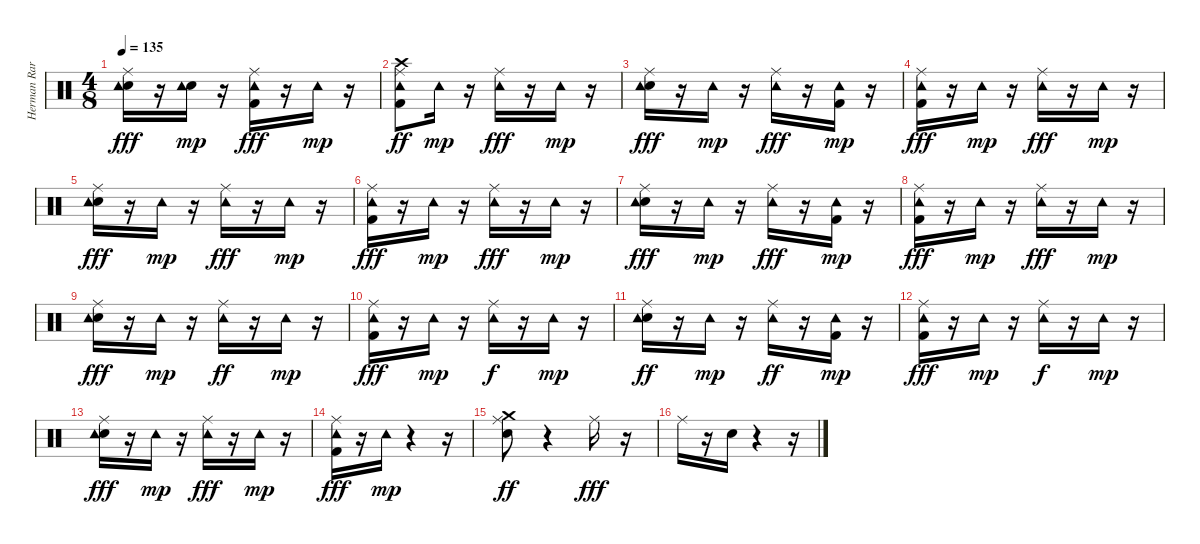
\track ("Herman Rarebell" "Herman Rar") {instrument percussion}
\staff {score}
\articulation defaults
\ts (4 8)
\tempo 135
\clef neutral
\ks c
("Snare (hit) 2" "Ride (middle)" "Tambourine (hit)").16{dy fff} r.16 ("Snare (hit) 2" "Tambourine (hit)").16{dy mp} r.16 ("Kick (hit) 2" "Ride (middle)" "Tambourine (hit)").16{dy fff} r.16 "Tambourine (hit)".16{dy mp} r.16 |
("Kick (hit) 2" "Ride (middle)" "Tambourine (hit)" "Crash high (hit)").8{dy ff} "Tambourine (hit)".16{dy mp} r.16 ("Ride (middle)" "Tambourine (hit)").16{dy fff} r.16 "Tambourine (hit)".16{dy mp} r.16 |
("Snare (hit) 2" "Ride (middle)" "Tambourine (hit)").16{dy fff} r.16 "Tambourine (hit)".16{dy mp} r.16 ("Ride (middle)" "Tambourine (hit)").16{dy fff} r.16 ("Kick (hit) 2" "Tambourine (hit)").16{dy mp} r.16 |
("Kick (hit) 2" "Ride (middle)" "Tambourine (hit)").16{dy fff} r.16 "Tambourine (hit)".16{dy mp} r.16 ("Ride (middle)" "Tambourine (hit)").16{dy fff} r.16 "Tambourine (hit)".16{dy mp} r.16 |
("Snare (hit) 2" "Ride (middle)" "Tambourine (hit)").16{dy fff} r.16 "Tambourine (hit)".16{dy mp} r.16 ("Ride (middle)" "Tambourine (hit)").16{dy fff} r.16 "Tambourine (hit)".16{dy mp} r.16 |
("Kick (hit) 2" "Ride (middle)" "Tambourine (hit)").16{dy fff} r.16 "Tambourine (hit)".16{dy mp} r.16 ("Ride (middle)" "Tambourine (hit)").16{dy fff} r.16 "Tambourine (hit)".16{dy mp} r.16 |
("Snare (hit) 2" "Ride (middle)" "Tambourine (hit)").16{dy fff} r.16 "Tambourine (hit)".16{dy mp} r.16 ("Ride (middle)" "Tambourine (hit)").16{dy fff} r.16 ("Kick (hit) 2" "Tambourine (hit)").16{dy mp} r.16 |
("Kick (hit) 2" "Ride (middle)" "Tambourine (hit)").16{dy fff} r.16 "Tambourine (hit)".16{dy mp} r.16 ("Ride (middle)" "Tambourine (hit)").16{dy fff} r.16 "Tambourine (hit)".16{dy mp} r.16 |
("Snare (hit) 2" "Ride (middle)" "Tambourine (hit)").16{dy fff} r.16 "Tambourine (hit)".16{dy mp} r.16 ("Ride (middle)" "Tambourine (hit)").16{dy ff} r.16 "Tambourine (hit)".16{dy mp} r.16 |
("Kick (hit) 2" "Ride (middle)" "Tambourine (hit)").16{dy fff} r.16 "Tambourine (hit)".16{dy mp} r.16 ("Ride (middle)" "Tambourine (hit)").16{dy f} r.16 "Tambourine (hit)".16{dy mp} r.16 |
("Snare (hit) 2" "Ride (middle)" "Tambourine (hit)").16{dy ff} r.16 "Tambourine (hit)".16{dy mp} r.16 ("Ride (middle)" "Tambourine (hit)").16{dy ff} r.16 ("Kick (hit) 2" "Tambourine (hit)").16{dy mp} r.16 |
("Kick (hit) 2" "Ride (middle)" "Tambourine (hit)").16{dy fff} r.16 "Tambourine (hit)".16{dy mp} r.16 ("Ride (middle)" "Tambourine (hit)").16{dy f} r.16 "Tambourine (hit)".16{dy mp} r.16 |
("Snare (hit) 2" "Ride (middle)" "Tambourine (hit)").16{dy fff} r.16 "Tambourine (hit)".16{dy mp} r.16 ("Ride (middle)" "Tambourine (hit)").16{dy fff} r.16 "Tambourine (hit)".16{dy mp} r.16 |
("Kick (hit) 2" "Ride (middle)" "Tambourine (hit)").16{dy fff} r.16 "Tambourine (hit)".16{dy mp} r.4 r.16 |
("Snare (hit) 2" "Ride (middle)" "Crash medium (hit)").8{dy ff} r.4 "Ride (middle)".16{dy fff} r.16 |
"Ride (middle)".16 r.16 "Snare (hit) 2".16 r.4 r.16
